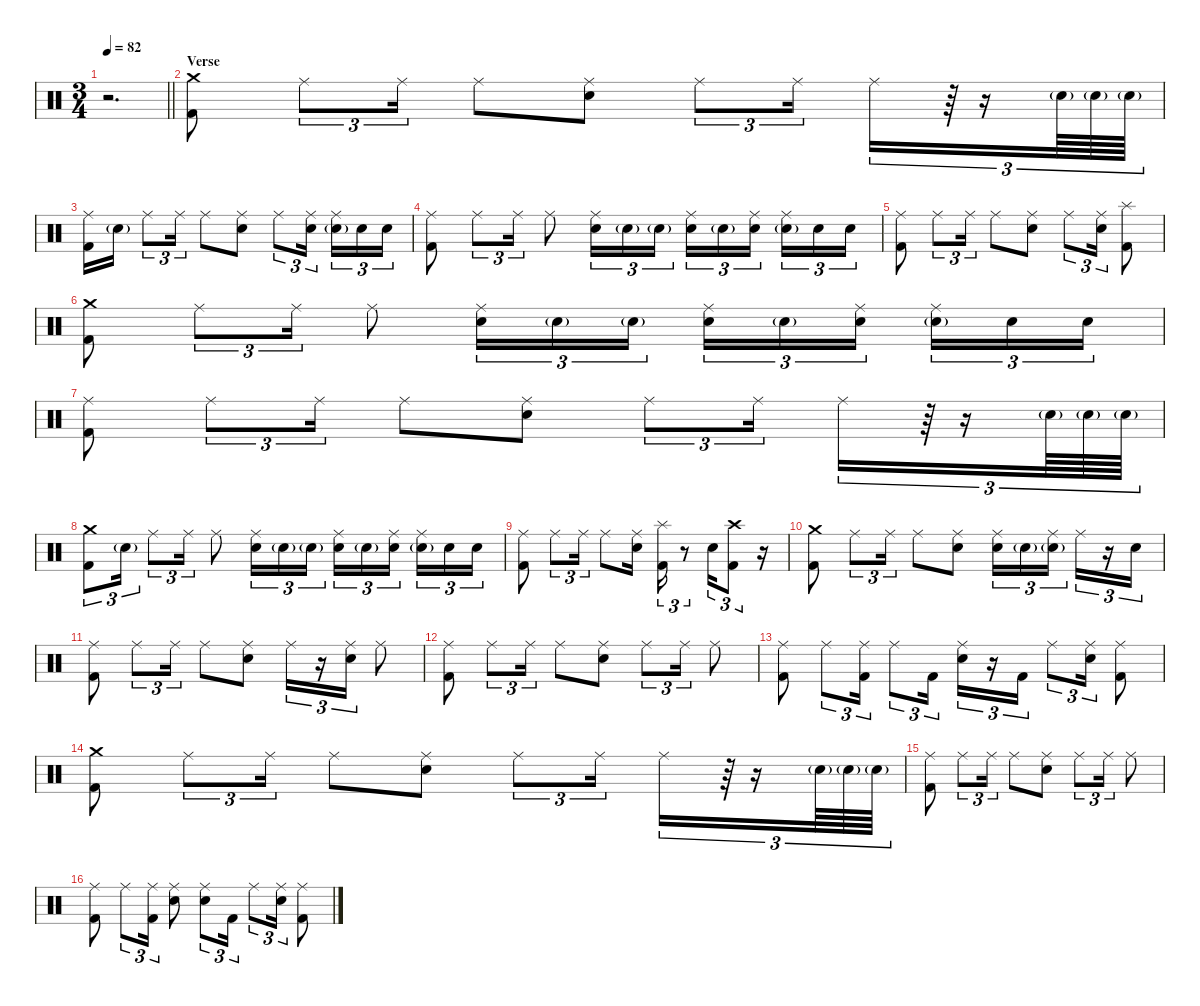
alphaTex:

\defaultSystemsLayout 4
\hideDynamics
\bracketExtendMode nobrackets
\singleTrackTrackNamePolicy hidden
\multiTrackTrackNamePolicy hidden
\firstSystemTrackNameMode fullname
\otherSystemsTrackNameOrientation horizontal
\track ("Drums" "drm.") {defaultSystemsLayout 4 instrument percussion}
\staff {score}
\articulation defaults
\ts (3 4)
\tempo 82
\clef neutral
\barLineRight lightlight
\ks c
r.2{d dy f beam Down} |
\section ("" "Verse")
("Crash medium (hit)" "Kick (hit) 2").8{beam Down} "Ride (middle)".8{tu (3 2) beam Down} "Ride (middle)".16{tu (3 2) beam Down} "Ride (middle)".8{beam Down} ("Ride (middle)" "Snare (hit) 2").8{beam Down} "Ride (middle)".8{tu (3 2) beam Down} "Ride (middle)".16{tu (3 2) beam Down} "Ride (middle)".16{tu (3 2) beam Down} r.64{tu (3 2) beam Down} r.16{tu (3 2) beam Down} "Snare (hit) 2"{g}.64{tu (3 2) dy mf beam Down} "Snare (hit) 2"{g}.64{tu (3 2) beam Down} "Snare (hit) 2"{g}.64{tu (3 2) beam Down} |
("Ride (middle)" "Kick (hit) 2").16{dy f beam Down} "Snare (hit) 2"{g}.16{dy mf beam Down} "Ride (middle)".8{tu (3 2) dy f beam Down} "Ride (middle)".16{tu (3 2) beam Down} "Ride (middle)".8{beam Down} ("Ride (middle)" "Snare (hit) 2").8{beam Down} "Ride (middle)".8{tu (3 2) beam Down} ("Ride (middle)" "Snare (hit) 2").16{tu (3 2) beam Down} ("Ride (middle)" "Snare (hit) 2"{g}).16{tu (3 2) beam Down} "Snare (hit) 2".16{tu (3 2) beam Down} "Snare (hit) 2".16{tu (3 2) beam Down} |
("Ride (middle)" "Kick (hit) 2").8{beam Down} "Ride (middle)".8{tu (3 2) beam Down} "Ride (middle)".16{tu (3 2) beam Down} "Ride (middle)".8{beam Down} ("Ride (middle)" "Snare (hit) 2").16{tu (3 2) beam Down} "Snare (hit) 2"{g}.16{tu (3 2) dy p beam Down} "Snare (hit) 2"{g}.16{tu (3 2) beam Down} ("Ride (middle)" "Snare (hit) 2").16{tu (3 2) dy f beam Down} "Snare (hit) 2"{g}.16{tu (3 2) dy p beam Down} ("Ride (middle)" "Snare (hit) 2").16{tu (3 2) dy f beam Down} ("Ride (middle)" "Snare (hit) 2"{g}).16{tu (3 2) dy p beam Down} "Snare (hit) 2".16{tu (3 2) dy mp beam Down} "Snare (hit) 2".16{tu (3 2) beam Down} |
("Ride (middle)" "Kick (hit) 2").8{dy f beam Down} "Ride (middle)".8{tu (3 2) beam Down} "Ride (middle)".16{tu (3 2) beam Down} "Ride (middle)".8{beam Down} ("Ride (middle)" "Snare (hit) 2").8{beam Down} "Ride (middle)".8{tu (3 2) beam Down} ("Ride (middle)" "Snare (hit) 2").16{tu (3 2) beam Down} ("Splash (hit)" "Kick (hit) 2").8{beam Down} |
("Crash medium (hit)" "Kick (hit) 2").8{beam Down} "Ride (middle)".8{tu (3 2) beam Down} "Ride (middle)".16{tu (3 2) beam Down} "Ride (middle)".8{beam Down} ("Ride (middle)" "Snare (hit) 2").16{tu (3 2) beam Down} "Snare (hit) 2"{g}.16{tu (3 2) dy p beam Down} "Snare (hit) 2"{g}.16{tu (3 2) beam Down} ("Ride (middle)" "Snare (hit) 2").16{tu (3 2) dy f beam Down} "Snare (hit) 2"{g}.16{tu (3 2) dy p beam Down} ("Ride (middle)" "Snare (hit) 2").16{tu (3 2) dy f beam Down} ("Ride (middle)" "Snare (hit) 2"{g}).16{tu (3 2) beam Down} "Snare (hit) 2".16{tu (3 2) dy mp beam Down} "Snare (hit) 2".16{tu (3 2) beam Down} |
("Ride (middle)" "Kick (hit) 2").8{dy f beam Down} "Ride (middle)".8{tu (3 2) beam Down} "Ride (middle)".16{tu (3 2) beam Down} "Ride (middle)".8{beam Down} ("Ride (middle)" "Snare (hit) 2").8{beam Down} "Ride (middle)".8{tu (3 2) beam Down} "Ride (middle)".16{tu (3 2) beam Down} "Ride (middle)".16{tu (3 2) beam Down} r.64{tu (3 2) beam Down} r.16{tu (3 2) beam Down} "Snare (hit) 2"{g}.64{tu (3 2) dy mf beam Down} "Snare (hit) 2"{g}.64{tu (3 2) beam Down} "Snare (hit) 2"{g}.64{tu (3 2) beam Down} |
("Crash medium (hit)" "Kick (hit) 2").8{tu (3 2) dy f beam Down} "Snare (hit) 2"{g}.16{tu (3 2) dy mf beam Down} "Ride (middle)".8{tu (3 2) dy f beam Down} "Ride (middle)".16{tu (3 2) beam Down} "Ride (middle)".8{beam Down} ("Ride (middle)" "Snare (hit) 2").16{tu (3 2) beam Down} "Snare (hit) 2"{g}.16{tu (3 2) dy p beam Down} "Snare (hit) 2"{g}.16{tu (3 2) beam Down} ("Ride (middle)" "Snare (hit) 2").16{tu (3 2) dy f beam Down} "Snare (hit) 2"{g}.16{tu (3 2) dy p beam Down} ("Ride (middle)" "Snare (hit) 2").16{tu (3 2) dy f beam Down} ("Ride (middle)" "Snare (hit) 2"{g}).16{tu (3 2) beam Down} "Snare (hit) 2".16{tu (3 2) dy mp beam Down} "Snare (hit) 2".16{tu (3 2) beam Down} |
("Ride (middle)" "Kick (hit) 2").8{dy f beam Down} "Ride (middle)".8{tu (3 2) beam Down} "Ride (middle)".16{tu (3 2) beam Down} "Ride (middle)".8{beam Down} ("Ride (middle)" "Snare (hit) 2").16{beam Down} ("Splash (hit)" "Kick (hit) 2").16{tu (3 2) beam Down} r.8{tu (3 2) beam Down} "Snare (hit) 2".16{tu (3 2) beam Down} ("Crash high (hit)" "Kick (hit) 2").8{tu (3 2) beam Down} r.16{beam Down} |
("Crash medium (hit)" "Kick (hit) 2").8{beam Down} "Ride (middle)".8{tu (3 2) beam Down} "Ride (middle)".16{tu (3 2) beam Down} "Ride (middle)".8{beam Down} ("Ride (middle)" "Snare (hit) 2").8{beam Down} ("Ride (middle)" "Snare (hit) 2").16{tu (3 2) beam Down} "Snare (hit) 2"{g}.16{tu (3 2) dy mf beam Down} ("Ride (middle)" "Snare (hit) 2"{g}).16{tu (3 2) dy f beam Down} "Ride (middle)".16{tu (3 2) beam Down} r.16{tu (3 2) beam Down} "Snare (hit) 2".16{tu (3 2) dy mp beam Down} |
("Ride (middle)" "Kick (hit) 2").8{dy f beam Down} "Ride (middle)".8{tu (3 2) beam Down} "Ride (middle)".16{tu (3 2) beam Down} "Ride (middle)".8{beam Down} ("Ride (middle)" "Snare (hit) 2").8{beam Down} "Ride (middle)".16{tu (3 2) beam Down} r.16{tu (3 2) beam Down} ("Ride (middle)" "Snare (hit) 2").16{tu (3 2) beam Down} "Ride (middle)".8{beam Down} |
("Ride (middle)" "Kick (hit) 2").8{beam Down} "Ride (middle)".8{tu (3 2) beam Down} "Ride (middle)".16{tu (3 2) beam Down} "Ride (middle)".8{beam Down} ("Ride (middle)" "Snare (hit) 2").8{beam Down} "Ride (middle)".8{tu (3 2) beam Down} "Ride (middle)".16{tu (3 2) beam Down} "Ride (middle)".8{beam Down} |
("Ride (middle)" "Kick (hit) 2").8{beam Down} "Ride (middle)".8{tu (3 2) beam Down} ("Ride (middle)" "Kick (hit) 2").16{tu (3 2) beam Down} "Ride (middle)".8{tu (3 2) beam Down} "Kick (hit) 2".16{tu (3 2) beam Down} ("Ride (middle)" "Snare (hit) 2").16{tu (3 2) beam Down} r.16{tu (3 2) beam Down} "Kick (hit) 2".16{tu (3 2) beam Down} "Ride (middle)".8{tu (3 2) beam Down} ("Ride (middle)" "Snare (hit) 2").16{tu (3 2) beam Down} ("Ride (middle)" "Kick (hit) 2").8{beam Down} |
("Crash medium (hit)" "Kick (hit) 2").8{beam Down} "Ride (middle)".8{tu (3 2) beam Down} "Ride (middle)".16{tu (3 2) beam Down} "Ride (middle)".8{beam Down} ("Ride (middle)" "Snare (hit) 2").8{beam Down} "Ride (middle)".8{tu (3 2) beam Down} "Ride (middle)".16{tu (3 2) beam Down} "Ride (middle)".16{tu (3 2) beam Down} r.64{tu (3 2) beam Down} r.16{tu (3 2) beam Down} "Snare (hit) 2"{g}.64{tu (3 2) dy mf beam Down} "Snare (hit) 2"{g}.64{tu (3 2) beam Down} "Snare (hit) 2"{g}.64{tu (3 2) beam Down} |
("Ride (middle)" "Kick (hit) 2").8{dy f beam Down} "Ride (middle)".8{tu (3 2) beam Down} "Ride (middle)".16{tu (3 2) beam Down} "Ride (middle)".8{beam Down} ("Ride (middle)" "Snare (hit) 2").8{beam Down} "Ride (middle)".8{tu (3 2) beam Down} "Ride (middle)".16{tu (3 2) beam Down} "Ride (middle)".8{beam Down} |
("Ride (middle)" "Kick (hit) 2").8{beam Down} "Ride (middle)".8{tu (3 2) beam Down} ("Ride (middle)" "Kick (hit) 2").16{tu (3 2) beam Down} ("Ride (middle)" "Snare (hit) 2").8{beam Down} ("Ride (middle)" "Snare (hit) 2").8{tu (3 2) beam Down} "Kick (hit) 2".16{tu (3 2) beam Down} "Ride (middle)".8{tu (3 2) beam Down} ("Ride (middle)" "Snare (hit) 2").16{tu (3 2) beam Down} ("Ride (middle)" "Kick (hit) 2").8{beam Down}
